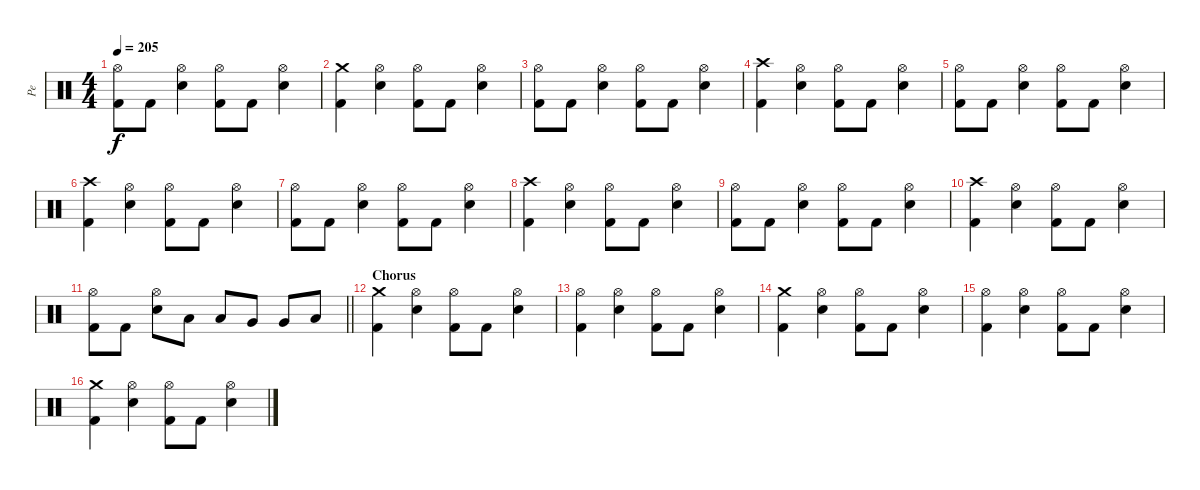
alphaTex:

\track ("Pe" "Pe") {instrument percussion}
\staff {score}
\articulation defaults
\ts (4 4)
\tempo 205
\clef neutral
\ks c
("Hi-Hat (open)" "Kick (hit) 2").8{dy f} "Kick (hit) 2".8 ("Hi-Hat (open)" "Electric Snare (hit)").4 ("Hi-Hat (open)" "Kick (hit) 2").8 "Kick (hit) 2".8 ("Hi-Hat (open)" "Electric Snare (hit)").4 |
("Crash medium (hit)" "Kick (hit) 2").4 ("Hi-Hat (open)" "Electric Snare (hit)").4 ("Hi-Hat (open)" "Kick (hit) 2").8 "Kick (hit) 2".8 ("Hi-Hat (open)" "Electric Snare (hit)").4 |
("Hi-Hat (open)" "Kick (hit) 2").8 "Kick (hit) 2".8 ("Hi-Hat (open)" "Electric Snare (hit)").4 ("Hi-Hat (open)" "Kick (hit) 2").8 "Kick (hit) 2".8 ("Hi-Hat (open)" "Electric Snare (hit)").4 |
("Crash high (hit)" "Kick (hit) 2").4 ("Hi-Hat (open)" "Electric Snare (hit)").4 ("Hi-Hat (open)" "Kick (hit) 2").8 "Kick (hit) 2".8 ("Hi-Hat (open)" "Electric Snare (hit)").4 |
("Hi-Hat (open)" "Kick (hit) 2").8 "Kick (hit) 2".8 ("Hi-Hat (open)" "Electric Snare (hit)").4 ("Hi-Hat (open)" "Kick (hit) 2").8 "Kick (hit) 2".8 ("Hi-Hat (open)" "Electric Snare (hit)").4 |
("Crash high (hit)" "Kick (hit) 2").4 ("Hi-Hat (open)" "Electric Snare (hit)").4 ("Hi-Hat (open)" "Kick (hit) 2").8 "Kick (hit) 2".8 ("Hi-Hat (open)" "Electric Snare (hit)").4 |
("Hi-Hat (open)" "Kick (hit) 2").8 "Kick (hit) 2".8 ("Hi-Hat (open)" "Electric Snare (hit)").4 ("Hi-Hat (open)" "Kick (hit) 2").8 "Kick (hit) 2".8 ("Hi-Hat (open)" "Electric Snare (hit)").4 |
("Crash high (hit)" "Kick (hit) 2").4 ("Hi-Hat (open)" "Electric Snare (hit)").4 ("Hi-Hat (open)" "Kick (hit) 2").8 "Kick (hit) 2".8 ("Hi-Hat (open)" "Electric Snare (hit)").4 |
("Hi-Hat (open)" "Kick (hit) 2").8 "Kick (hit) 2".8 ("Hi-Hat (open)" "Electric Snare (hit)").4 ("Hi-Hat (open)" "Kick (hit) 2").8 "Kick (hit) 2".8 ("Hi-Hat (open)" "Electric Snare (hit)").4 |
("Crash high (hit)" "Kick (hit) 2").4 ("Hi-Hat (open)" "Electric Snare (hit)").4 ("Hi-Hat (open)" "Kick (hit) 2").8 "Kick (hit) 2".8 ("Hi-Hat (open)" "Electric Snare (hit)").4 |
\barLineRight lightlight
("Hi-Hat (open)" "Kick (hit) 2").8 "Kick (hit) 2".8 ("Hi-Hat (open)" "Electric Snare (hit)").8 "Low Tom (hit)".8 "Low Tom (hit)".8 "Very Low Tom (hit)".8 "Very Low Tom (hit)".8 "Low Floor Tom (hit)".8 |
\section ("" "Chorus")
("Crash medium (hit)" "Kick (hit) 2").4 ("Hi-Hat (open)" "Electric Snare (hit)").4 ("Hi-Hat (open)" "Kick (hit) 2").8 "Kick (hit) 2".8 ("Hi-Hat (open)" "Electric Snare (hit)").4 |
("Hi-Hat (open)" "Kick (hit) 2").4 ("Hi-Hat (open)" "Electric Snare (hit)").4 ("Hi-Hat (open)" "Kick (hit) 2").8 "Kick (hit) 2".8 ("Hi-Hat (open)" "Electric Snare (hit)").4 |
("Crash medium (hit)" "Kick (hit) 2").4 ("Hi-Hat (open)" "Electric Snare (hit)").4 ("Hi-Hat (open)" "Kick (hit) 2").8 "Kick (hit) 2".8 ("Hi-Hat (open)" "Electric Snare (hit)").4 |
("Hi-Hat (open)" "Kick (hit) 2").4 ("Hi-Hat (open)" "Electric Snare (hit)").4 ("Hi-Hat (open)" "Kick (hit) 2").8 "Kick (hit) 2".8 ("Hi-Hat (open)" "Electric Snare (hit)").4 |
("Crash medium (hit)" "Kick (hit) 2").4 ("Hi-Hat (open)" "Electric Snare (hit)").4 ("Hi-Hat (open)" "Kick (hit) 2").8 "Kick (hit) 2".8 ("Hi-Hat (open)" "Electric Snare (hit)").4
